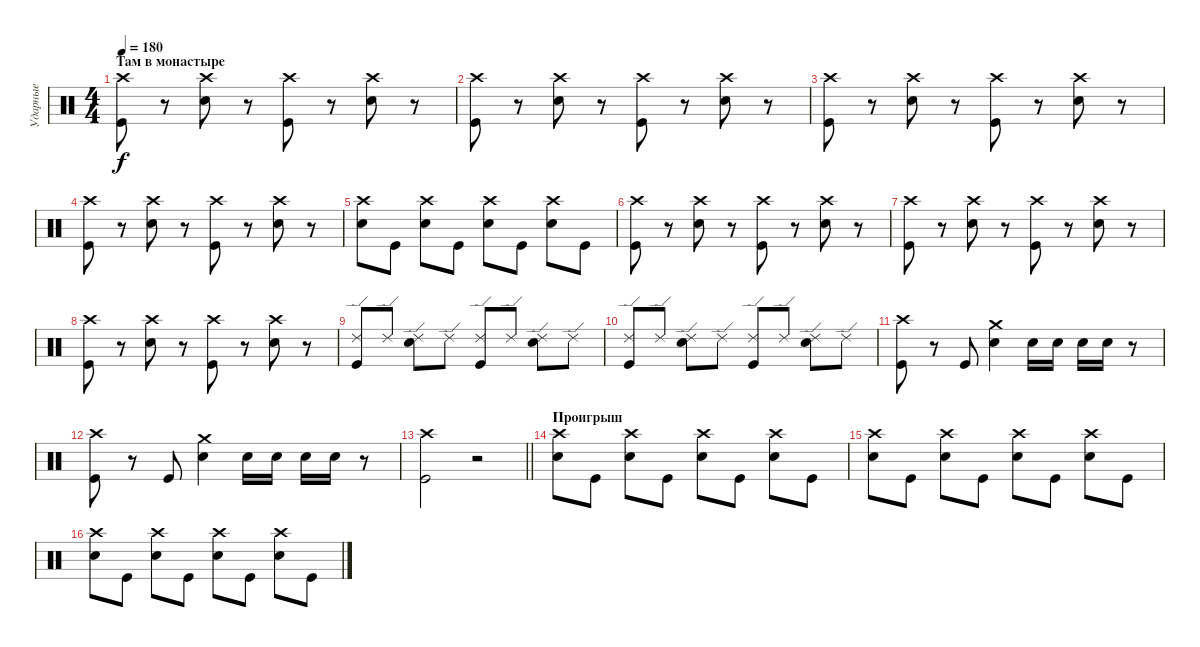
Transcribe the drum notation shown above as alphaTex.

\track ("Ударные" "Ударные") {instrument percussion}
\staff {score}
\articulation defaults
\ts (4 4)
\section ("" "Там в монастыре")
\tempo 180
\clef neutral
\ks c
("Kick (hit)" "Crash high (hit)").8{dy f} r.8 ("Electric Snare (hit)" "Crash high (hit)").8 r.8 ("Kick (hit)" "Crash high (hit)").8 r.8 ("Electric Snare (hit)" "Crash high (hit)").8 r.8 |
("Kick (hit)" "Crash high (hit)").8 r.8 ("Electric Snare (hit)" "Crash high (hit)").8 r.8 ("Kick (hit)" "Crash high (hit)").8 r.8 ("Electric Snare (hit)" "Crash high (hit)").8 r.8 |
("Kick (hit)" "Crash high (hit)").8 r.8 ("Electric Snare (hit)" "Crash high (hit)").8 r.8 ("Kick (hit)" "Crash high (hit)").8 r.8 ("Electric Snare (hit)" "Crash high (hit)").8 r.8 |
("Kick (hit)" "Crash high (hit)").8 r.8 ("Electric Snare (hit)" "Crash high (hit)").8 r.8 ("Kick (hit)" "Crash high (hit)").8 r.8 ("Electric Snare (hit)" "Crash high (hit)").8 r.8 |
("Electric Snare (hit)" "Crash high (hit)").8 "Kick (hit)".8 ("Electric Snare (hit)" "Crash high (hit)").8 "Kick (hit)".8 ("Electric Snare (hit)" "Crash high (hit)").8 "Kick (hit)".8 ("Electric Snare (hit)" "Crash high (hit)").8 "Kick (hit)".8 |
("Kick (hit)" "Crash high (hit)").8 r.8 ("Electric Snare (hit)" "Crash high (hit)").8 r.8 ("Kick (hit)" "Crash high (hit)").8 r.8 ("Electric Snare (hit)" "Crash high (hit)").8 r.8 |
("Kick (hit)" "Crash high (hit)").8 r.8 ("Electric Snare (hit)" "Crash high (hit)").8 r.8 ("Kick (hit)" "Crash high (hit)").8 r.8 ("Electric Snare (hit)" "Crash high (hit)").8 r.8 |
("Kick (hit)" "Crash high (hit)").8 r.8 ("Electric Snare (hit)" "Crash high (hit)").8 r.8 ("Kick (hit)" "Crash high (hit)").8 r.8 ("Electric Snare (hit)" "Crash high (hit)").8 r.8 |
("Kick (hit)" "Ride (edge) 2").8 "Ride (edge) 2".8 ("Electric Snare (hit)" "Ride (edge) 2").8 "Ride (edge) 2".8 ("Kick (hit)" "Ride (edge) 2").8 "Ride (edge) 2".8 ("Electric Snare (hit)" "Ride (edge) 2").8 "Ride (edge) 2".8 |
("Kick (hit)" "Ride (edge) 2").8 "Ride (edge) 2".8 ("Electric Snare (hit)" "Ride (edge) 2").8 "Ride (edge) 2".8 ("Kick (hit)" "Ride (edge) 2").8 "Ride (edge) 2".8 ("Electric Snare (hit)" "Ride (edge) 2").8 "Ride (edge) 2".8 |
("Crash high (hit)" "Kick (hit)").8 r.8 "Kick (hit)".8 ("Electric Snare (hit)" "Crash medium (hit)").4 "Electric Snare (hit)".16 "Electric Snare (hit)".16 "Electric Snare (hit)".16 "Electric Snare (hit)".16 r.8 |
("Crash high (hit)" "Kick (hit)").8 r.8 "Kick (hit)".8 ("Electric Snare (hit)" "Crash medium (hit)").4 "Electric Snare (hit)".16 "Electric Snare (hit)".16 "Electric Snare (hit)".16 "Electric Snare (hit)".16 r.8 |
\barLineRight lightlight
("Crash high (hit)" "Kick (hit)").2 r.2 |
\section ("" "Проигрыш")
("Electric Snare (hit)" "Crash high (hit)").8 "Kick (hit)".8 ("Electric Snare (hit)" "Crash high (hit)").8 "Kick (hit)".8 ("Electric Snare (hit)" "Crash high (hit)").8 "Kick (hit)".8 ("Electric Snare (hit)" "Crash high (hit)").8 "Kick (hit)".8 |
("Electric Snare (hit)" "Crash high (hit)").8 "Kick (hit)".8 ("Electric Snare (hit)" "Crash high (hit)").8 "Kick (hit)".8 ("Electric Snare (hit)" "Crash high (hit)").8 "Kick (hit)".8 ("Electric Snare (hit)" "Crash high (hit)").8 "Kick (hit)".8 |
("Electric Snare (hit)" "Crash high (hit)").8 "Kick (hit)".8 ("Electric Snare (hit)" "Crash high (hit)").8 "Kick (hit)".8 ("Electric Snare (hit)" "Crash high (hit)").8 "Kick (hit)".8 ("Electric Snare (hit)" "Crash high (hit)").8 "Kick (hit)".8
